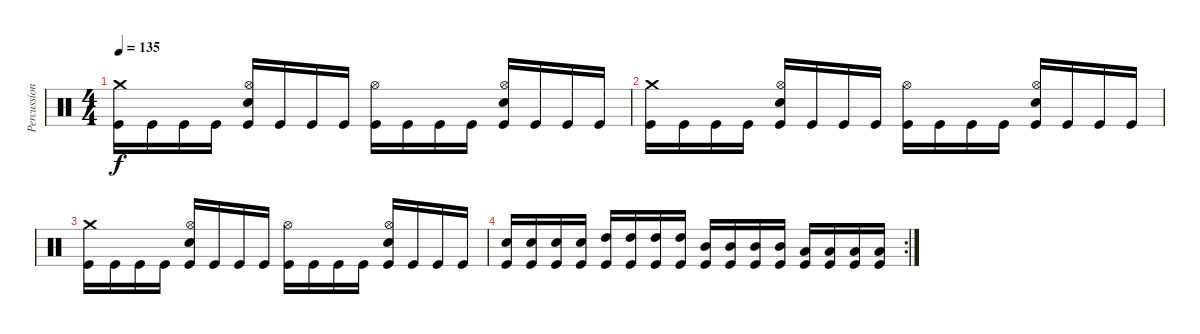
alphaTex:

\track ("Percussion" "Percussion") {instrument percussion}
\staff {score}
\articulation defaults
\ts (4 4)
\tempo 135
\clef neutral
\ks c
("Crash medium (hit)" "Kick (hit)").16{dy f} "Kick (hit)".16 "Kick (hit)".16 "Kick (hit)".16 ("Hi-Hat (open)" "Electric Snare (hit)" "Kick (hit)").16 "Kick (hit)".16 "Kick (hit)".16 "Kick (hit)".16 ("Hi-Hat (open)" "Kick (hit)").16 "Kick (hit)".16 "Kick (hit)".16 "Kick (hit)".16 ("Hi-Hat (open)" "Electric Snare (hit)" "Kick (hit)").16 "Kick (hit)".16 "Kick (hit)".16 "Kick (hit)".16 |
("Crash medium (hit)" "Kick (hit)").16 "Kick (hit)".16 "Kick (hit)".16 "Kick (hit)".16 ("Hi-Hat (open)" "Electric Snare (hit)" "Kick (hit)").16 "Kick (hit)".16 "Kick (hit)".16 "Kick (hit)".16 ("Hi-Hat (open)" "Kick (hit)").16 "Kick (hit)".16 "Kick (hit)".16 "Kick (hit)".16 ("Hi-Hat (open)" "Electric Snare (hit)" "Kick (hit)").16 "Kick (hit)".16 "Kick (hit)".16 "Kick (hit)".16 |
("Crash medium (hit)" "Kick (hit)").16 "Kick (hit)".16 "Kick (hit)".16 "Kick (hit)".16 ("Hi-Hat (open)" "Electric Snare (hit)" "Kick (hit)").16 "Kick (hit)".16 "Kick (hit)".16 "Kick (hit)".16 ("Hi-Hat (open)" "Kick (hit)").16 "Kick (hit)".16 "Kick (hit)".16 "Kick (hit)".16 ("Hi-Hat (open)" "Electric Snare (hit)" "Kick (hit)").16 "Kick (hit)".16 "Kick (hit)".16 "Kick (hit)".16 |
\rc 2
("Electric Snare (hit)" "Kick (hit)").16 ("Electric Snare (hit)" "Kick (hit)").16 ("Electric Snare (hit)" "Kick (hit)").16 ("Electric Snare (hit)" "Kick (hit)").16 ("High Tom (hit)" "Kick (hit)").16 ("High Tom (hit)" "Kick (hit)").16 ("High Tom (hit)" "Kick (hit)").16 ("High Tom (hit)" "Kick (hit)").16 ("Mid Tom (hit)" "Kick (hit)").16 ("Mid Tom (hit)" "Kick (hit)").16 ("Mid Tom (hit)" "Kick (hit)").16 ("Mid Tom (hit)" "Kick (hit)").16 ("Low Tom (hit)" "Kick (hit)").16 ("Low Tom (hit)" "Kick (hit)").16 ("Low Tom (hit)" "Kick (hit)").16 ("Low Tom (hit)" "Kick (hit)").16
